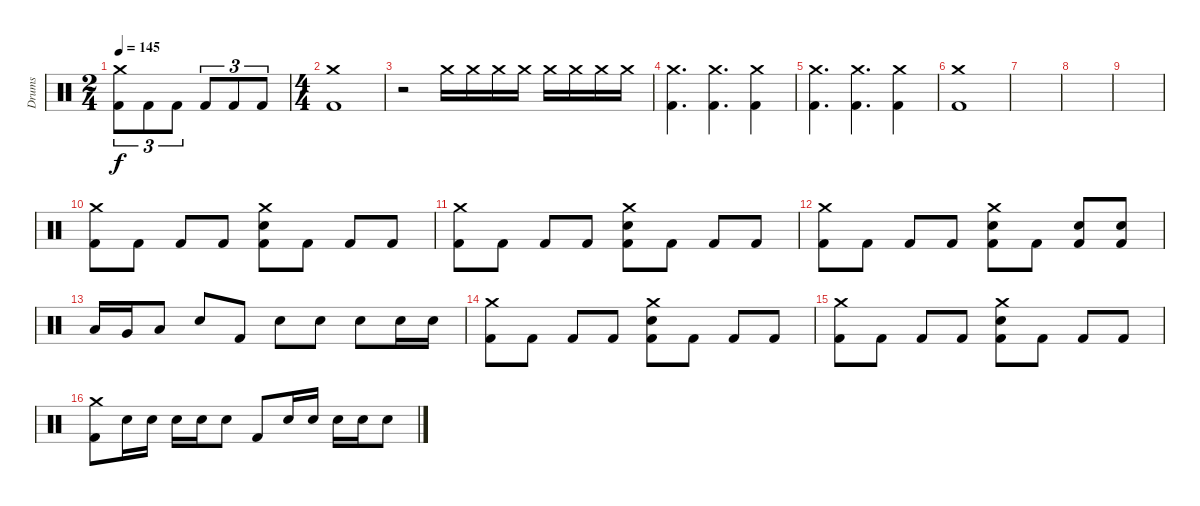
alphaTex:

\track ("Drums" "Drums") {instrument percussion}
\staff {score}
\articulation defaults
\ts (2 4)
\tempo 145
\clef neutral
\ks c
("Crash medium (hit)" "Kick (hit) 2").8{tu (3 2) dy f} "Kick (hit) 2".8{tu (3 2)} "Kick (hit) 2".8{tu (3 2)} "Kick (hit) 2".8{tu (3 2)} "Kick (hit) 2".8{tu (3 2)} "Kick (hit) 2".8{tu (3 2)} |
\ts (4 4)
("Crash medium (hit)" "Kick (hit) 2").1 |
r.2 "Crash medium (hit)".16 "Crash medium (hit)".16 "Crash medium (hit)".16 "Crash medium (hit)".16 "Crash medium (hit)".16 "Crash medium (hit)".16 "Crash medium (hit)".16 "Crash medium (hit)".16 |
("Crash medium (hit)" "Kick (hit) 2").4{d} ("Crash medium (hit)" "Kick (hit) 2").4{d} ("Crash medium (hit)" "Kick (hit) 2").4 |
("Crash medium (hit)" "Kick (hit) 2").4{d} ("Crash medium (hit)" "Kick (hit) 2").4{d} ("Crash medium (hit)" "Kick (hit) 2").4 |
("Crash medium (hit)" "Kick (hit) 2").1 |
|
|
|
("Crash medium (hit)" "Kick (hit) 2").8 "Kick (hit) 2".8 "Kick (hit) 2".8 "Kick (hit) 2".8 ("Crash medium (hit)" "Electric Snare (hit)" "Kick (hit) 2").8 "Kick (hit) 2".8 "Kick (hit) 2".8 "Kick (hit) 2".8 |
("Crash medium (hit)" "Kick (hit) 2").8 "Kick (hit) 2".8 "Kick (hit) 2".8 "Kick (hit) 2".8 ("Crash medium (hit)" "Electric Snare (hit)" "Kick (hit) 2").8 "Kick (hit) 2".8 "Kick (hit) 2".8 "Kick (hit) 2".8 |
("Crash medium (hit)" "Kick (hit) 2").8 "Kick (hit) 2".8 "Kick (hit) 2".8 "Kick (hit) 2".8 ("Crash medium (hit)" "Electric Snare (hit)" "Kick (hit) 2").8 "Kick (hit) 2".8 ("Electric Snare (hit)" "Kick (hit) 2").8 ("Electric Snare (hit)" "Kick (hit) 2").8 |
"Low Tom (hit)".16 "Very Low Tom (hit)".16 "Low Tom (hit)".8 "Electric Snare (hit)".8 "Kick (hit) 2".8 "Electric Snare (hit)".8 "Electric Snare (hit)".8 "Electric Snare (hit)".8 "Electric Snare (hit)".16 "Electric Snare (hit)".16 |
("Crash medium (hit)" "Kick (hit) 2").8 "Kick (hit) 2".8 "Kick (hit) 2".8 "Kick (hit) 2".8 ("Crash medium (hit)" "Electric Snare (hit)" "Kick (hit) 2").8 "Kick (hit) 2".8 "Kick (hit) 2".8 "Kick (hit) 2".8 |
("Crash medium (hit)" "Kick (hit) 2").8 "Kick (hit) 2".8 "Kick (hit) 2".8 "Kick (hit) 2".8 ("Crash medium (hit)" "Electric Snare (hit)" "Kick (hit) 2").8 "Kick (hit) 2".8 "Kick (hit) 2".8 "Kick (hit) 2".8 |
("Crash medium (hit)" "Kick (hit) 2").8 "Electric Snare (hit)".16 "Electric Snare (hit)".16 "Electric Snare (hit)".16 "Electric Snare (hit)".16 "Electric Snare (hit)".8 "Kick (hit) 2".8 "Electric Snare (hit)".16 "Electric Snare (hit)".16 "Electric Snare (hit)".16 "Electric Snare (hit)".16 "Electric Snare (hit)".8
